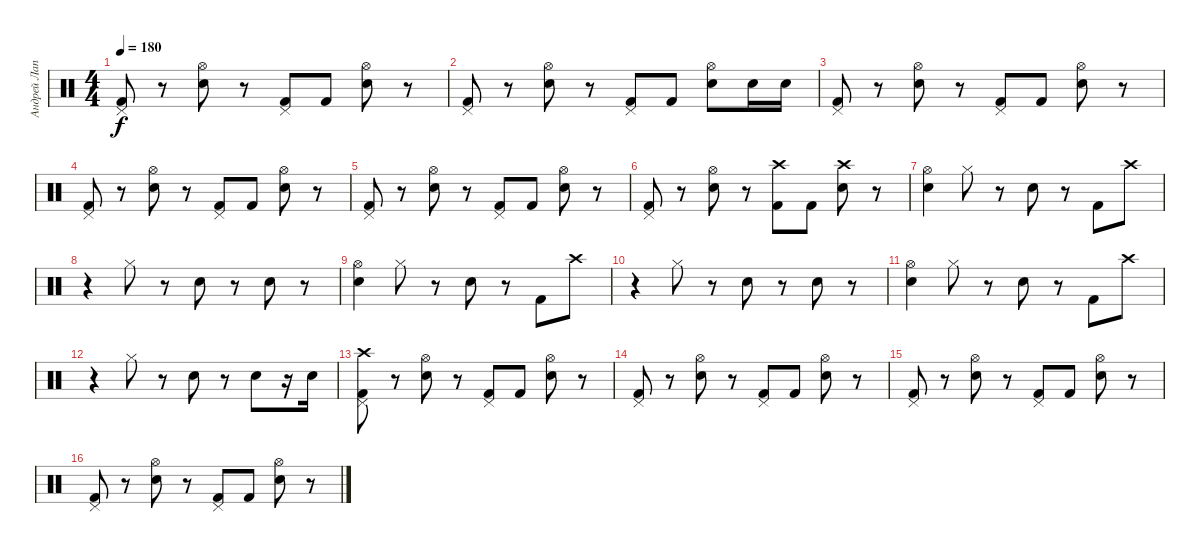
\track ("Андрей Лаптев" "Андрей Лап") {instrument percussion}
\staff {score}
\articulation defaults
\ts (4 4)
\tempo 180
\clef neutral
\ks c
("Kick (hit) 2" "Pedal Hi-Hat (hit)").8{dy f} r.8 ("Snare (hit) 2" "Hi-Hat (open)").8 r.8 ("Kick (hit) 2" "Pedal Hi-Hat (hit)").8 "Kick (hit) 2".8 ("Snare (hit) 2" "Hi-Hat (open)").8 r.8 |
("Kick (hit) 2" "Pedal Hi-Hat (hit)").8 r.8 ("Snare (hit) 2" "Hi-Hat (open)").8 r.8 ("Kick (hit) 2" "Pedal Hi-Hat (hit)").8 "Kick (hit) 2".8 ("Snare (hit) 2" "Hi-Hat (open)").8 "Snare (hit) 2".16 "Snare (hit) 2".16 |
("Kick (hit) 2" "Pedal Hi-Hat (hit)").8 r.8 ("Snare (hit) 2" "Hi-Hat (open)").8 r.8 ("Kick (hit) 2" "Pedal Hi-Hat (hit)").8 "Kick (hit) 2".8 ("Snare (hit) 2" "Hi-Hat (open)").8 r.8 |
("Kick (hit) 2" "Pedal Hi-Hat (hit)").8 r.8 ("Snare (hit) 2" "Hi-Hat (open)").8 r.8 ("Kick (hit) 2" "Pedal Hi-Hat (hit)").8 "Kick (hit) 2".8 ("Snare (hit) 2" "Hi-Hat (open)").8 r.8 |
("Kick (hit) 2" "Pedal Hi-Hat (hit)").8 r.8 ("Snare (hit) 2" "Hi-Hat (open)").8 r.8 ("Kick (hit) 2" "Pedal Hi-Hat (hit)").8 "Kick (hit) 2".8 ("Snare (hit) 2" "Hi-Hat (open)").8 r.8 |
("Kick (hit) 2" "Pedal Hi-Hat (hit)").8 r.8 ("Snare (hit) 2" "Hi-Hat (open)").8 r.8 ("Kick (hit) 2" "Crash high (hit)").8 "Kick (hit) 2".8 ("Snare (hit) 2" "Crash high (hit)").8 r.8 |
("Snare (hit) 2" "Hi-Hat (open)").4 "Hi-Hat (closed)".8 r.8 "Snare (hit) 2".8 r.8 "Kick (hit) 2".8 "Crash high (hit)".8 |
r.4 "Hi-Hat (closed)".8 r.8 "Snare (hit) 2".8 r.8 "Snare (hit) 2".8 r.8 |
("Snare (hit) 2" "Hi-Hat (open)").4 "Hi-Hat (closed)".8 r.8 "Snare (hit) 2".8 r.8 "Kick (hit) 2".8 "Crash high (hit)".8 |
r.4 "Hi-Hat (closed)".8 r.8 "Snare (hit) 2".8 r.8 "Snare (hit) 2".8 r.8 |
("Snare (hit) 2" "Hi-Hat (open)").4 "Hi-Hat (closed)".8 r.8 "Snare (hit) 2".8 r.8 "Kick (hit) 2".8 "Crash high (hit)".8 |
r.4 "Hi-Hat (closed)".8 r.8 "Snare (hit) 2".8 r.8 "Snare (hit) 2".8 r.16 "Snare (hit) 2".16 |
("Kick (hit) 2" "Crash high (hit)" "Pedal Hi-Hat (hit)").8 r.8 ("Snare (hit) 2" "Hi-Hat (open)").8 r.8 ("Kick (hit) 2" "Pedal Hi-Hat (hit)").8 "Kick (hit) 2".8 ("Snare (hit) 2" "Hi-Hat (open)").8 r.8 |
("Kick (hit) 2" "Pedal Hi-Hat (hit)").8 r.8 ("Snare (hit) 2" "Hi-Hat (open)").8 r.8 ("Kick (hit) 2" "Pedal Hi-Hat (hit)").8 "Kick (hit) 2".8 ("Snare (hit) 2" "Hi-Hat (open)").8 r.8 |
("Kick (hit) 2" "Pedal Hi-Hat (hit)").8 r.8 ("Snare (hit) 2" "Hi-Hat (open)").8 r.8 ("Kick (hit) 2" "Pedal Hi-Hat (hit)").8 "Kick (hit) 2".8 ("Snare (hit) 2" "Hi-Hat (open)").8 r.8 |
("Kick (hit) 2" "Pedal Hi-Hat (hit)").8 r.8 ("Snare (hit) 2" "Hi-Hat (open)").8 r.8 ("Kick (hit) 2" "Pedal Hi-Hat (hit)").8 "Kick (hit) 2".8 ("Snare (hit) 2" "Hi-Hat (open)").8 r.8
